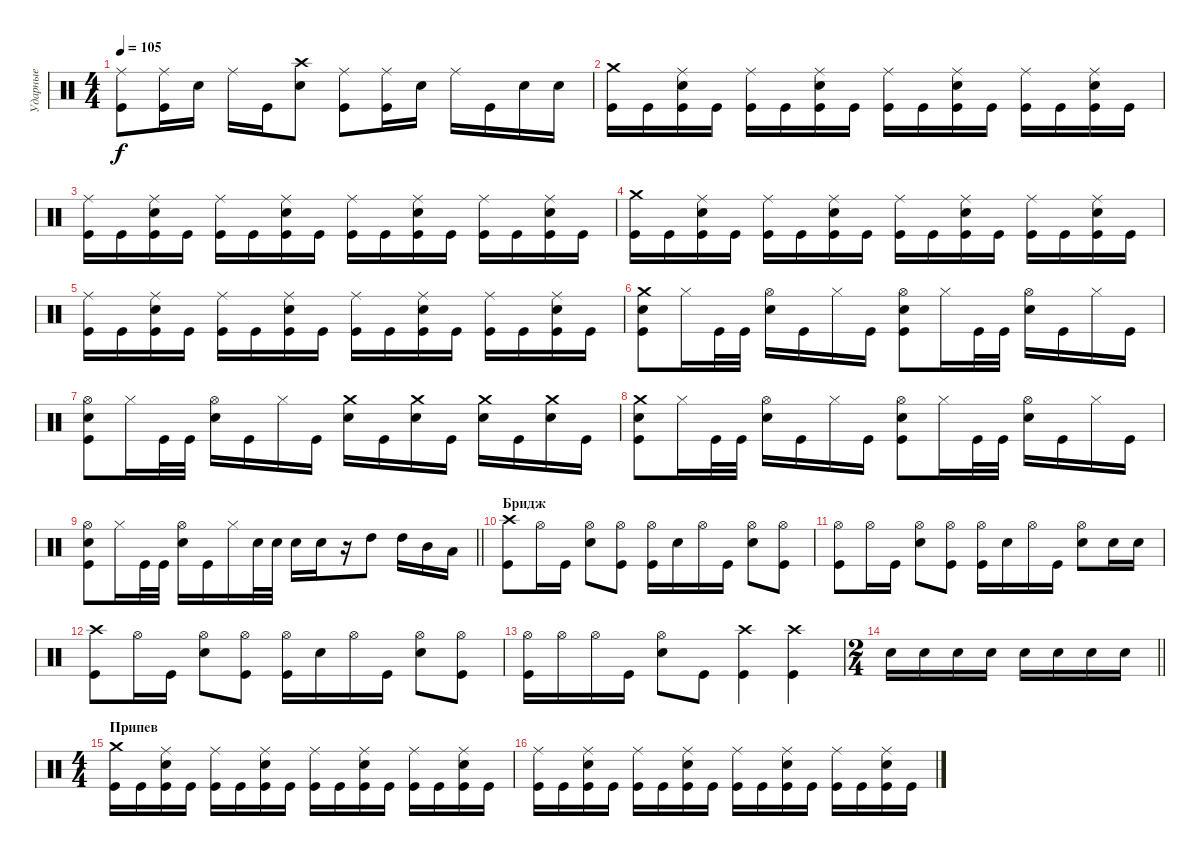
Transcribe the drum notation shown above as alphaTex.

\track ("Ударные" "Ударные") {instrument percussion}
\staff {score}
\articulation defaults
\ts (4 4)
\tempo 105
\clef neutral
\ks c
("Kick (hit)" "Ride (middle)").8{dy f} ("Kick (hit)" "Ride (middle)").16 "Snare (hit) 2".16 "Ride (middle)".16 "Kick (hit)".16 ("Snare (hit) 2" "Crash high (hit)").8 ("Kick (hit)" "Ride (middle)").8 ("Kick (hit)" "Ride (middle)").16 "Snare (hit) 2".16 "Ride (middle)".16 "Kick (hit)".16 "Snare (hit) 2".16 "Snare (hit) 2".16 |
("Kick (hit)" "Crash medium (hit)").16 "Kick (hit)".16 ("Kick (hit)" "Snare (hit) 2" "Ride (middle)").16 "Kick (hit)".16 ("Kick (hit)" "Ride (middle)").16 "Kick (hit)".16 ("Kick (hit)" "Snare (hit) 2" "Ride (middle)").16 "Kick (hit)".16 ("Kick (hit)" "Ride (middle)").16 "Kick (hit)".16 ("Kick (hit)" "Snare (hit) 2" "Ride (middle)").16 "Kick (hit)".16 ("Kick (hit)" "Ride (middle)").16 "Kick (hit)".16 ("Kick (hit)" "Snare (hit) 2" "Ride (middle)").16 "Kick (hit)".16 |
("Kick (hit)" "Ride (middle)").16 "Kick (hit)".16 ("Kick (hit)" "Snare (hit) 2" "Ride (middle)").16 "Kick (hit)".16 ("Kick (hit)" "Ride (middle)").16 "Kick (hit)".16 ("Kick (hit)" "Snare (hit) 2" "Ride (middle)").16 "Kick (hit)".16 ("Kick (hit)" "Ride (middle)").16 "Kick (hit)".16 ("Kick (hit)" "Snare (hit) 2" "Ride (middle)").16 "Kick (hit)".16 ("Kick (hit)" "Ride (middle)").16 "Kick (hit)".16 ("Kick (hit)" "Snare (hit) 2" "Ride (middle)").16 "Kick (hit)".16 |
("Kick (hit)" "Crash medium (hit)").16 "Kick (hit)".16 ("Kick (hit)" "Snare (hit) 2" "Ride (middle)").16 "Kick (hit)".16 ("Kick (hit)" "Ride (middle)").16 "Kick (hit)".16 ("Kick (hit)" "Snare (hit) 2" "Ride (middle)").16 "Kick (hit)".16 ("Kick (hit)" "Ride (middle)").16 "Kick (hit)".16 ("Kick (hit)" "Snare (hit) 2" "Ride (middle)").16 "Kick (hit)".16 ("Kick (hit)" "Ride (middle)").16 "Kick (hit)".16 ("Kick (hit)" "Snare (hit) 2" "Ride (middle)").16 "Kick (hit)".16 |
("Kick (hit)" "Ride (middle)").16 "Kick (hit)".16 ("Kick (hit)" "Snare (hit) 2" "Ride (middle)").16 "Kick (hit)".16 ("Kick (hit)" "Ride (middle)").16 "Kick (hit)".16 ("Kick (hit)" "Snare (hit) 2" "Ride (middle)").16 "Kick (hit)".16 ("Kick (hit)" "Ride (middle)").16 "Kick (hit)".16 ("Kick (hit)" "Snare (hit) 2" "Ride (middle)").16 "Kick (hit)".16 ("Kick (hit)" "Ride (middle)").16 "Kick (hit)".16 ("Kick (hit)" "Snare (hit) 2" "Ride (middle)").16 "Kick (hit)".16 |
("Kick (hit)" "Snare (hit) 2" "Crash medium (hit)").8 "Hi-Hat (closed)".16 "Kick (hit)".32 "Kick (hit)".32 ("Snare (hit) 2" "Hi-Hat (open)").16 "Kick (hit)".16 "Hi-Hat (closed)".16 "Kick (hit)".16 ("Kick (hit)" "Snare (hit) 2" "Hi-Hat (open)").8 "Hi-Hat (closed)".16 "Kick (hit)".32 "Kick (hit)".32 ("Snare (hit) 2" "Hi-Hat (open)").16 "Kick (hit)".16 "Hi-Hat (closed)".16 "Kick (hit)".16 |
("Kick (hit)" "Snare (hit) 2" "Hi-Hat (open)").8 "Hi-Hat (closed)".16 "Kick (hit)".32 "Kick (hit)".32 ("Snare (hit) 2" "Hi-Hat (open)").16 "Kick (hit)".16 "Hi-Hat (closed)".16 "Kick (hit)".16 ("Snare (hit) 2" "Crash medium (hit)").16 "Kick (hit)".16 ("Snare (hit) 2" "Crash medium (hit)").16 "Kick (hit)".16 ("Snare (hit) 2" "Crash medium (hit)").16 "Kick (hit)".16 ("Snare (hit) 2" "Crash medium (hit)").16 "Kick (hit)".16 |
("Kick (hit)" "Snare (hit) 2" "Crash medium (hit)").8 "Hi-Hat (closed)".16 "Kick (hit)".32 "Kick (hit)".32 ("Snare (hit) 2" "Hi-Hat (open)").16 "Kick (hit)".16 "Hi-Hat (closed)".16 "Kick (hit)".16 ("Kick (hit)" "Snare (hit) 2" "Hi-Hat (open)").8 "Hi-Hat (closed)".16 "Kick (hit)".32 "Kick (hit)".32 ("Snare (hit) 2" "Hi-Hat (open)").16 "Kick (hit)".16 "Hi-Hat (closed)".16 "Kick (hit)".16 |
\barLineRight lightlight
("Kick (hit)" "Snare (hit) 2" "Hi-Hat (open)").8 "Hi-Hat (closed)".16 "Kick (hit)".32 "Kick (hit)".32 ("Snare (hit) 2" "Hi-Hat (open)").16 "Kick (hit)".16 "Hi-Hat (closed)".16 "Snare (hit) 2".32 "Snare (hit) 2".32 "Snare (hit) 2".16 "Snare (hit) 2".16 r.16 "High Tom (hit)".8 "High Tom (hit)".16 "Mid Tom (hit)".16 "Low Tom (hit)".16 |
\section ("" "Бридж")
("Kick (hit)" "Crash high (hit)").8 "Hi-Hat (open)".16 "Kick (hit)".16 ("Snare (hit) 2" "Hi-Hat (open)").8 ("Kick (hit)" "Hi-Hat (open)").8 ("Kick (hit)" "Hi-Hat (open)").16 "Snare (hit) 2".16 "Hi-Hat (open)".16 "Kick (hit)".16 ("Snare (hit) 2" "Hi-Hat (open)").8 ("Kick (hit)" "Hi-Hat (open)").8 |
("Kick (hit)" "Hi-Hat (open)").8 "Hi-Hat (open)".16 "Kick (hit)".16 ("Snare (hit) 2" "Hi-Hat (open)").8 ("Kick (hit)" "Hi-Hat (open)").8 ("Kick (hit)" "Hi-Hat (open)").16 "Snare (hit) 2".16 "Hi-Hat (open)".16 "Kick (hit)".16 ("Snare (hit) 2" "Hi-Hat (open)").8 "Snare (hit) 2".16 "Snare (hit) 2".16 |
("Kick (hit)" "Crash high (hit)").8 "Hi-Hat (open)".16 "Kick (hit)".16 ("Snare (hit) 2" "Hi-Hat (open)").8 ("Kick (hit)" "Hi-Hat (open)").8 ("Kick (hit)" "Hi-Hat (open)").16 "Snare (hit) 2".16 "Hi-Hat (open)".16 "Kick (hit)".16 ("Snare (hit) 2" "Hi-Hat (open)").8 ("Kick (hit)" "Hi-Hat (open)").8 |
("Kick (hit)" "Hi-Hat (open)").16 "Hi-Hat (open)".16 "Hi-Hat (open)".16 "Kick (hit)".16 ("Snare (hit) 2" "Hi-Hat (open)").8 "Kick (hit)".8 ("Kick (hit)" "Crash high (hit)").4 ("Kick (hit)" "Crash high (hit)").4 |
\ts (2 4)
\barLineRight lightlight "Snare (hit) 2".16 "Snare (hit) 2".16 "Snare (hit) 2".16 "Snare (hit) 2".16 "Snare (hit) 2".16 "Snare (hit) 2".16 "Snare (hit) 2".16 "Snare (hit) 2".16
|
\ts (4 4)
\section ("" "Припев")
("Kick (hit)" "Crash medium (hit)").16 "Kick (hit)".16 ("Kick (hit)" "Snare (hit) 2" "Ride (middle)").16 "Kick (hit)".16 ("Kick (hit)" "Ride (middle)").16 "Kick (hit)".16 ("Kick (hit)" "Snare (hit) 2" "Ride (middle)").16 "Kick (hit)".16 ("Kick (hit)" "Ride (middle)").16 "Kick (hit)".16 ("Kick (hit)" "Snare (hit) 2" "Ride (middle)").16 "Kick (hit)".16 ("Kick (hit)" "Ride (middle)").16 "Kick (hit)".16 ("Kick (hit)" "Snare (hit) 2" "Ride (middle)").16 "Kick (hit)".16 |
("Kick (hit)" "Ride (middle)").16 "Kick (hit)".16 ("Kick (hit)" "Snare (hit) 2" "Ride (middle)").16 "Kick (hit)".16 ("Kick (hit)" "Ride (middle)").16 "Kick (hit)".16 ("Kick (hit)" "Snare (hit) 2" "Ride (middle)").16 "Kick (hit)".16 ("Kick (hit)" "Ride (middle)").16 "Kick (hit)".16 ("Kick (hit)" "Snare (hit) 2" "Ride (middle)").16 "Kick (hit)".16 ("Kick (hit)" "Ride (middle)").16 "Kick (hit)".16 ("Kick (hit)" "Snare (hit) 2" "Ride (middle)").16 "Kick (hit)".16
